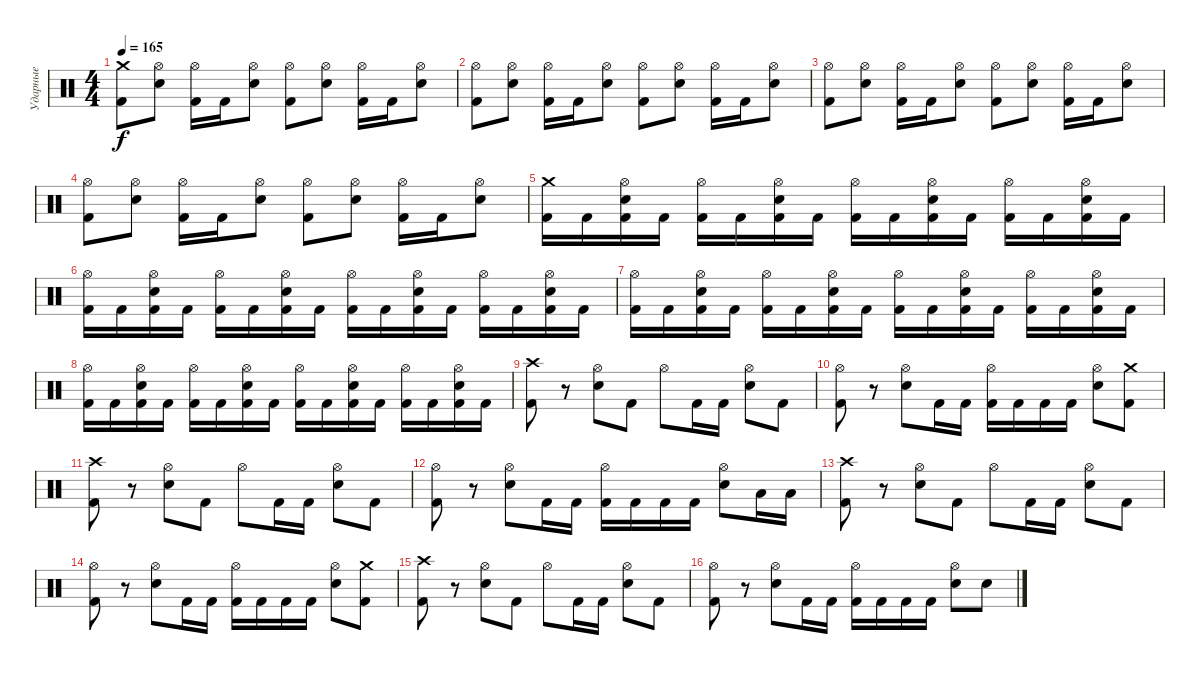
\track ("Ударные" "Ударные") {instrument percussion}
\staff {score}
\articulation defaults
\ts (4 4)
\tempo 165
\clef neutral
\ks c
("Crash medium (hit)" "Kick (hit) 2").8{dy f} ("Hi-Hat (open)" "Electric Snare (hit)").8 ("Hi-Hat (open)" "Kick (hit) 2").16 "Kick (hit) 2".16 ("Hi-Hat (open)" "Electric Snare (hit)").8 ("Hi-Hat (open)" "Kick (hit) 2").8 ("Hi-Hat (open)" "Electric Snare (hit)").8 ("Hi-Hat (open)" "Kick (hit) 2").16 "Kick (hit) 2".16 ("Hi-Hat (open)" "Electric Snare (hit)").8 |
("Hi-Hat (open)" "Kick (hit) 2").8 ("Hi-Hat (open)" "Electric Snare (hit)").8 ("Hi-Hat (open)" "Kick (hit) 2").16 "Kick (hit) 2".16 ("Hi-Hat (open)" "Electric Snare (hit)").8 ("Hi-Hat (open)" "Kick (hit) 2").8 ("Hi-Hat (open)" "Electric Snare (hit)").8 ("Hi-Hat (open)" "Kick (hit) 2").16 "Kick (hit) 2".16 ("Hi-Hat (open)" "Electric Snare (hit)").8 |
("Hi-Hat (open)" "Kick (hit) 2").8 ("Hi-Hat (open)" "Electric Snare (hit)").8 ("Hi-Hat (open)" "Kick (hit) 2").16 "Kick (hit) 2".16 ("Hi-Hat (open)" "Electric Snare (hit)").8 ("Hi-Hat (open)" "Kick (hit) 2").8 ("Hi-Hat (open)" "Electric Snare (hit)").8 ("Hi-Hat (open)" "Kick (hit) 2").16 "Kick (hit) 2".16 ("Hi-Hat (open)" "Electric Snare (hit)").8 |
("Hi-Hat (open)" "Kick (hit) 2").8 ("Hi-Hat (open)" "Electric Snare (hit)").8 ("Hi-Hat (open)" "Kick (hit) 2").16 "Kick (hit) 2".16 ("Hi-Hat (open)" "Electric Snare (hit)").8 ("Hi-Hat (open)" "Kick (hit) 2").8 ("Hi-Hat (open)" "Electric Snare (hit)").8 ("Hi-Hat (open)" "Kick (hit) 2").16 "Kick (hit) 2".16 ("Hi-Hat (open)" "Electric Snare (hit)").8 |
("Kick (hit) 2" "Crash medium (hit)").16 "Kick (hit) 2".16 ("Kick (hit) 2" "Electric Snare (hit)" "Hi-Hat (open)").16 "Kick (hit) 2".16 ("Kick (hit) 2" "Hi-Hat (open)").16 "Kick (hit) 2".16 ("Kick (hit) 2" "Electric Snare (hit)" "Hi-Hat (open)").16 "Kick (hit) 2".16 ("Kick (hit) 2" "Hi-Hat (open)").16 "Kick (hit) 2".16 ("Kick (hit) 2" "Electric Snare (hit)" "Hi-Hat (open)").16 "Kick (hit) 2".16 ("Kick (hit) 2" "Hi-Hat (open)").16 "Kick (hit) 2".16 ("Kick (hit) 2" "Electric Snare (hit)" "Hi-Hat (open)").16 "Kick (hit) 2".16 |
("Kick (hit) 2" "Hi-Hat (open)").16 "Kick (hit) 2".16 ("Kick (hit) 2" "Electric Snare (hit)" "Hi-Hat (open)").16 "Kick (hit) 2".16 ("Kick (hit) 2" "Hi-Hat (open)").16 "Kick (hit) 2".16 ("Kick (hit) 2" "Electric Snare (hit)" "Hi-Hat (open)").16 "Kick (hit) 2".16 ("Kick (hit) 2" "Hi-Hat (open)").16 "Kick (hit) 2".16 ("Kick (hit) 2" "Electric Snare (hit)" "Hi-Hat (open)").16 "Kick (hit) 2".16 ("Kick (hit) 2" "Hi-Hat (open)").16 "Kick (hit) 2".16 ("Kick (hit) 2" "Electric Snare (hit)" "Hi-Hat (open)").16 "Kick (hit) 2".16 |
("Kick (hit) 2" "Hi-Hat (open)").16 "Kick (hit) 2".16 ("Kick (hit) 2" "Electric Snare (hit)" "Hi-Hat (open)").16 "Kick (hit) 2".16 ("Kick (hit) 2" "Hi-Hat (open)").16 "Kick (hit) 2".16 ("Kick (hit) 2" "Electric Snare (hit)" "Hi-Hat (open)").16 "Kick (hit) 2".16 ("Kick (hit) 2" "Hi-Hat (open)").16 "Kick (hit) 2".16 ("Kick (hit) 2" "Electric Snare (hit)" "Hi-Hat (open)").16 "Kick (hit) 2".16 ("Kick (hit) 2" "Hi-Hat (open)").16 "Kick (hit) 2".16 ("Kick (hit) 2" "Electric Snare (hit)" "Hi-Hat (open)").16 "Kick (hit) 2".16 |
("Kick (hit) 2" "Hi-Hat (open)").16 "Kick (hit) 2".16 ("Kick (hit) 2" "Electric Snare (hit)" "Hi-Hat (open)").16 "Kick (hit) 2".16 ("Kick (hit) 2" "Hi-Hat (open)").16 "Kick (hit) 2".16 ("Kick (hit) 2" "Electric Snare (hit)" "Hi-Hat (open)").16 "Kick (hit) 2".16 ("Kick (hit) 2" "Hi-Hat (open)").16 "Kick (hit) 2".16 ("Kick (hit) 2" "Electric Snare (hit)" "Hi-Hat (open)").16 "Kick (hit) 2".16 ("Kick (hit) 2" "Hi-Hat (open)").16 "Kick (hit) 2".16 ("Kick (hit) 2" "Electric Snare (hit)" "Hi-Hat (open)").16 "Kick (hit) 2".16 |
("Crash high (hit)" "Kick (hit) 2").8 r.8 ("Hi-Hat (open)" "Electric Snare (hit)").8 "Kick (hit) 2".8 "Hi-Hat (open)".8 "Kick (hit) 2".16 "Kick (hit) 2".16 ("Hi-Hat (open)" "Electric Snare (hit)").8 "Kick (hit) 2".8 |
("Hi-Hat (open)" "Kick (hit) 2").8 r.8 ("Hi-Hat (open)" "Electric Snare (hit)").8 "Kick (hit) 2".16 "Kick (hit) 2".16 ("Hi-Hat (open)" "Kick (hit) 2").16 "Kick (hit) 2".16 "Kick (hit) 2".16 "Kick (hit) 2".16 ("Hi-Hat (open)" "Electric Snare (hit)").8 ("Crash medium (hit)" "Kick (hit) 2").8 |
("Crash high (hit)" "Kick (hit) 2").8 r.8 ("Hi-Hat (open)" "Electric Snare (hit)").8 "Kick (hit) 2".8 "Hi-Hat (open)".8 "Kick (hit) 2".16 "Kick (hit) 2".16 ("Hi-Hat (open)" "Electric Snare (hit)").8 "Kick (hit) 2".8 |
("Hi-Hat (open)" "Kick (hit) 2").8 r.8 ("Hi-Hat (open)" "Electric Snare (hit)").8 "Kick (hit) 2".16 "Kick (hit) 2".16 ("Hi-Hat (open)" "Kick (hit) 2").16 "Kick (hit) 2".16 "Kick (hit) 2".16 "Kick (hit) 2".16 ("Hi-Hat (open)" "Electric Snare (hit)").8 "Low Tom (hit)".16 "Low Tom (hit)".16 |
("Crash high (hit)" "Kick (hit) 2").8 r.8 ("Hi-Hat (open)" "Electric Snare (hit)").8 "Kick (hit) 2".8 "Hi-Hat (open)".8 "Kick (hit) 2".16 "Kick (hit) 2".16 ("Hi-Hat (open)" "Electric Snare (hit)").8 "Kick (hit) 2".8 |
("Hi-Hat (open)" "Kick (hit) 2").8 r.8 ("Hi-Hat (open)" "Electric Snare (hit)").8 "Kick (hit) 2".16 "Kick (hit) 2".16 ("Hi-Hat (open)" "Kick (hit) 2").16 "Kick (hit) 2".16 "Kick (hit) 2".16 "Kick (hit) 2".16 ("Hi-Hat (open)" "Electric Snare (hit)").8 ("Crash medium (hit)" "Kick (hit) 2").8 |
("Crash high (hit)" "Kick (hit) 2").8 r.8 ("Hi-Hat (open)" "Electric Snare (hit)").8 "Kick (hit) 2".8 "Hi-Hat (open)".8 "Kick (hit) 2".16 "Kick (hit) 2".16 ("Hi-Hat (open)" "Electric Snare (hit)").8 "Kick (hit) 2".8 |
("Hi-Hat (open)" "Kick (hit) 2").8 r.8 ("Hi-Hat (open)" "Electric Snare (hit)").8 "Kick (hit) 2".16 "Kick (hit) 2".16 ("Hi-Hat (open)" "Kick (hit) 2").16 "Kick (hit) 2".16 "Kick (hit) 2".16 "Kick (hit) 2".16 ("Hi-Hat (open)" "Electric Snare (hit)").8 "Electric Snare (hit)".8
